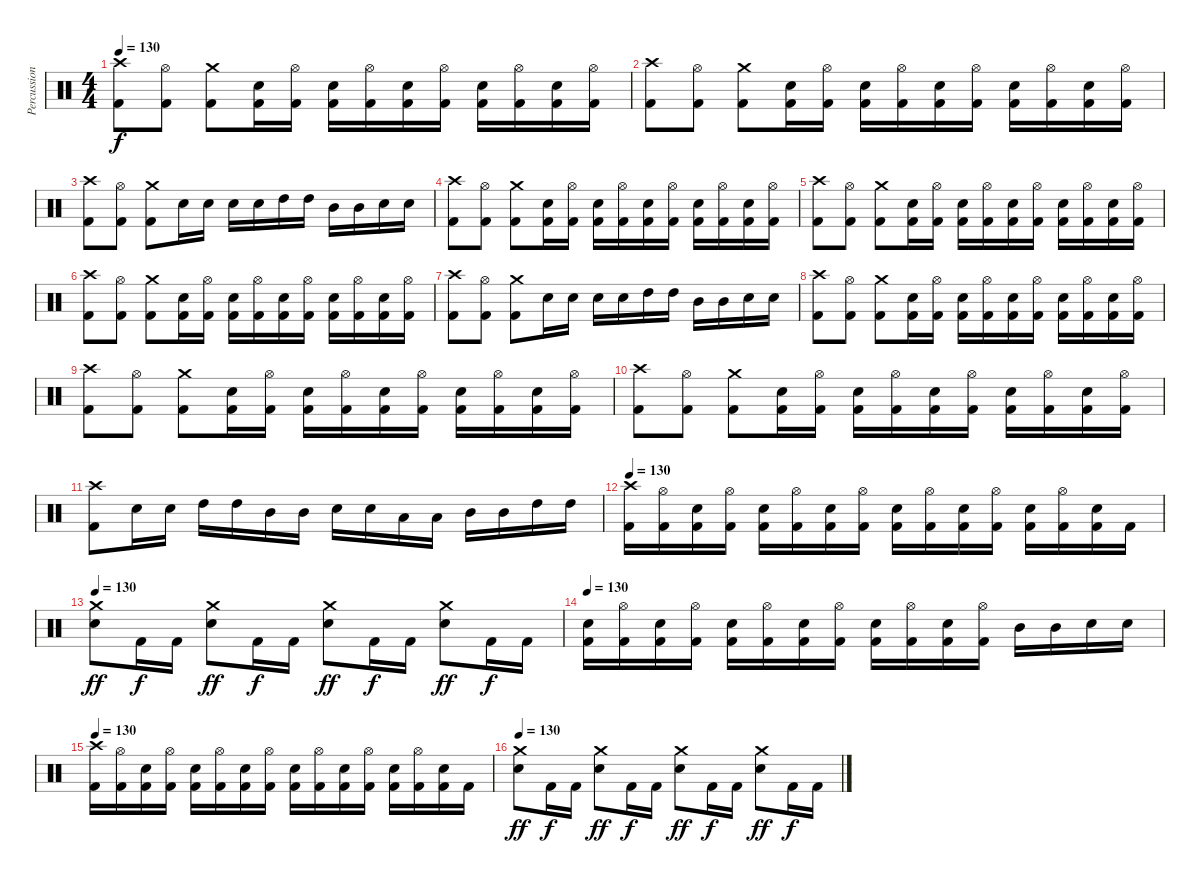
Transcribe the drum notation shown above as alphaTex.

\track ("Percussion" "Percussion") {instrument percussion}
\staff {score}
\articulation defaults
\ts (4 4)
\tempo 130
\clef neutral
\ks c
("Crash high (hit)" "Kick (hit) 2").8{dy f} ("Hi-Hat (open)" "Kick (hit) 2").8 ("Crash medium (hit)" "Kick (hit) 2").8 ("Electric Snare (hit)" "Kick (hit) 2").16 ("Hi-Hat (open)" "Kick (hit) 2").16 ("Electric Snare (hit)" "Kick (hit) 2").16 ("Hi-Hat (open)" "Kick (hit) 2").16 ("Electric Snare (hit)" "Kick (hit) 2").16 ("Hi-Hat (open)" "Kick (hit) 2").16 ("Electric Snare (hit)" "Kick (hit) 2").16 ("Hi-Hat (open)" "Kick (hit) 2").16 ("Electric Snare (hit)" "Kick (hit) 2").16 ("Hi-Hat (open)" "Kick (hit) 2").16 |
("Crash high (hit)" "Kick (hit) 2").8 ("Hi-Hat (open)" "Kick (hit) 2").8 ("Crash medium (hit)" "Kick (hit) 2").8 ("Electric Snare (hit)" "Kick (hit) 2").16 ("Hi-Hat (open)" "Kick (hit) 2").16 ("Electric Snare (hit)" "Kick (hit) 2").16 ("Hi-Hat (open)" "Kick (hit) 2").16 ("Electric Snare (hit)" "Kick (hit) 2").16 ("Hi-Hat (open)" "Kick (hit) 2").16 ("Electric Snare (hit)" "Kick (hit) 2").16 ("Hi-Hat (open)" "Kick (hit) 2").16 ("Electric Snare (hit)" "Kick (hit) 2").16 ("Hi-Hat (open)" "Kick (hit) 2").16 |
("Crash high (hit)" "Kick (hit) 2").8 ("Hi-Hat (open)" "Kick (hit) 2").8 ("Crash medium (hit)" "Kick (hit) 2").8 "Electric Snare (hit)".16 "Electric Snare (hit)".16 "Electric Snare (hit)".16 "Electric Snare (hit)".16 "High Tom (hit)".16 "High Tom (hit)".16 "Mid Tom (hit)".16 "Mid Tom (hit)".16 "Electric Snare (hit)".16 "Electric Snare (hit)".16 |
("Crash high (hit)" "Kick (hit) 2").8 ("Hi-Hat (open)" "Kick (hit) 2").8 ("Crash medium (hit)" "Kick (hit) 2").8 ("Electric Snare (hit)" "Kick (hit) 2").16 ("Hi-Hat (open)" "Kick (hit) 2").16 ("Electric Snare (hit)" "Kick (hit) 2").16 ("Hi-Hat (open)" "Kick (hit) 2").16 ("Electric Snare (hit)" "Kick (hit) 2").16 ("Hi-Hat (open)" "Kick (hit) 2").16 ("Electric Snare (hit)" "Kick (hit) 2").16 ("Hi-Hat (open)" "Kick (hit) 2").16 ("Electric Snare (hit)" "Kick (hit) 2").16 ("Hi-Hat (open)" "Kick (hit) 2").16 |
("Crash high (hit)" "Kick (hit) 2").8 ("Hi-Hat (open)" "Kick (hit) 2").8 ("Crash medium (hit)" "Kick (hit) 2").8 ("Electric Snare (hit)" "Kick (hit) 2").16 ("Hi-Hat (open)" "Kick (hit) 2").16 ("Electric Snare (hit)" "Kick (hit) 2").16 ("Hi-Hat (open)" "Kick (hit) 2").16 ("Electric Snare (hit)" "Kick (hit) 2").16 ("Hi-Hat (open)" "Kick (hit) 2").16 ("Electric Snare (hit)" "Kick (hit) 2").16 ("Hi-Hat (open)" "Kick (hit) 2").16 ("Electric Snare (hit)" "Kick (hit) 2").16 ("Hi-Hat (open)" "Kick (hit) 2").16 |
("Crash high (hit)" "Kick (hit) 2").8 ("Hi-Hat (open)" "Kick (hit) 2").8 ("Crash medium (hit)" "Kick (hit) 2").8 ("Electric Snare (hit)" "Kick (hit) 2").16 ("Hi-Hat (open)" "Kick (hit) 2").16 ("Electric Snare (hit)" "Kick (hit) 2").16 ("Hi-Hat (open)" "Kick (hit) 2").16 ("Electric Snare (hit)" "Kick (hit) 2").16 ("Hi-Hat (open)" "Kick (hit) 2").16 ("Electric Snare (hit)" "Kick (hit) 2").16 ("Hi-Hat (open)" "Kick (hit) 2").16 ("Electric Snare (hit)" "Kick (hit) 2").16 ("Hi-Hat (open)" "Kick (hit) 2").16 |
("Crash high (hit)" "Kick (hit) 2").8 ("Hi-Hat (open)" "Kick (hit) 2").8 ("Crash medium (hit)" "Kick (hit) 2").8 "Electric Snare (hit)".16 "Electric Snare (hit)".16 "Electric Snare (hit)".16 "Electric Snare (hit)".16 "High Tom (hit)".16 "High Tom (hit)".16 "Mid Tom (hit)".16 "Mid Tom (hit)".16 "Electric Snare (hit)".16 "Electric Snare (hit)".16 |
("Crash high (hit)" "Kick (hit) 2").8 ("Hi-Hat (open)" "Kick (hit) 2").8 ("Crash medium (hit)" "Kick (hit) 2").8 ("Electric Snare (hit)" "Kick (hit) 2").16 ("Hi-Hat (open)" "Kick (hit) 2").16 ("Electric Snare (hit)" "Kick (hit) 2").16 ("Hi-Hat (open)" "Kick (hit) 2").16 ("Electric Snare (hit)" "Kick (hit) 2").16 ("Hi-Hat (open)" "Kick (hit) 2").16 ("Electric Snare (hit)" "Kick (hit) 2").16 ("Hi-Hat (open)" "Kick (hit) 2").16 ("Electric Snare (hit)" "Kick (hit) 2").16 ("Hi-Hat (open)" "Kick (hit) 2").16 |
("Crash high (hit)" "Kick (hit) 2").8 ("Hi-Hat (open)" "Kick (hit) 2").8 ("Crash medium (hit)" "Kick (hit) 2").8 ("Electric Snare (hit)" "Kick (hit) 2").16 ("Hi-Hat (open)" "Kick (hit) 2").16 ("Electric Snare (hit)" "Kick (hit) 2").16 ("Hi-Hat (open)" "Kick (hit) 2").16 ("Electric Snare (hit)" "Kick (hit) 2").16 ("Hi-Hat (open)" "Kick (hit) 2").16 ("Electric Snare (hit)" "Kick (hit) 2").16 ("Hi-Hat (open)" "Kick (hit) 2").16 ("Electric Snare (hit)" "Kick (hit) 2").16 ("Hi-Hat (open)" "Kick (hit) 2").16 |
("Crash high (hit)" "Kick (hit) 2").8 ("Hi-Hat (open)" "Kick (hit) 2").8 ("Crash medium (hit)" "Kick (hit) 2").8 ("Electric Snare (hit)" "Kick (hit) 2").16 ("Hi-Hat (open)" "Kick (hit) 2").16 ("Electric Snare (hit)" "Kick (hit) 2").16 ("Hi-Hat (open)" "Kick (hit) 2").16 ("Electric Snare (hit)" "Kick (hit) 2").16 ("Hi-Hat (open)" "Kick (hit) 2").16 ("Electric Snare (hit)" "Kick (hit) 2").16 ("Hi-Hat (open)" "Kick (hit) 2").16 ("Electric Snare (hit)" "Kick (hit) 2").16 ("Hi-Hat (open)" "Kick (hit) 2").16 |
("Crash high (hit)" "Kick (hit) 2").8 "Electric Snare (hit)".16 "Electric Snare (hit)".16 "High Tom (hit)".16 "High Tom (hit)".16 "Mid Tom (hit)".16 "Mid Tom (hit)".16 "Electric Snare (hit)".16 "Electric Snare (hit)".16 "Low Tom (hit)".16 "Low Tom (hit)".16 "Mid Tom (hit)".16 "Mid Tom (hit)".16 "High Tom (hit)".16 "High Tom (hit)".16 |
\tempo 130
("Crash high (hit)" "Kick (hit) 2").16 ("Hi-Hat (open)" "Kick (hit) 2").16 ("Electric Snare (hit)" "Kick (hit) 2").16 ("Hi-Hat (open)" "Kick (hit) 2").16 ("Electric Snare (hit)" "Kick (hit) 2").16 ("Hi-Hat (open)" "Kick (hit) 2").16 ("Electric Snare (hit)" "Kick (hit) 2").16 ("Hi-Hat (open)" "Kick (hit) 2").16 ("Electric Snare (hit)" "Kick (hit) 2").16 ("Hi-Hat (open)" "Kick (hit) 2").16 ("Electric Snare (hit)" "Kick (hit) 2").16 ("Hi-Hat (open)" "Kick (hit) 2").16 ("Electric Snare (hit)" "Kick (hit) 2").16 ("Hi-Hat (open)" "Kick (hit) 2").16 ("Electric Snare (hit)" "Kick (hit) 2").16 "Kick (hit) 2".16 |
\tempo 130
("Crash medium (hit)" "Electric Snare (hit)").8{dy ff} "Kick (hit) 2".16{dy f} "Kick (hit) 2".16 ("Crash medium (hit)" "Electric Snare (hit)").8{dy ff} "Kick (hit) 2".16{dy f} "Kick (hit) 2".16 ("Crash medium (hit)" "Electric Snare (hit)").8{dy ff} "Kick (hit) 2".16{dy f} "Kick (hit) 2".16 ("Crash medium (hit)" "Electric Snare (hit)").8{dy ff} "Kick (hit) 2".16{dy f} "Kick (hit) 2".16 |
\tempo 130
("Electric Snare (hit)" "Kick (hit) 2").16 ("Hi-Hat (open)" "Kick (hit) 2").16 ("Electric Snare (hit)" "Kick (hit) 2").16 ("Hi-Hat (open)" "Kick (hit) 2").16 ("Electric Snare (hit)" "Kick (hit) 2").16 ("Hi-Hat (open)" "Kick (hit) 2").16 ("Electric Snare (hit)" "Kick (hit) 2").16 ("Hi-Hat (open)" "Kick (hit) 2").16 ("Electric Snare (hit)" "Kick (hit) 2").16 ("Hi-Hat (open)" "Kick (hit) 2").16 ("Electric Snare (hit)" "Kick (hit) 2").16 ("Hi-Hat (open)" "Kick (hit) 2").16 "Mid Tom (hit)".16 "Mid Tom (hit)".16 "Electric Snare (hit)".16 "Electric Snare (hit)".16 |
\tempo 130
("Crash high (hit)" "Kick (hit) 2").16 ("Hi-Hat (open)" "Kick (hit) 2").16 ("Electric Snare (hit)" "Kick (hit) 2").16 ("Hi-Hat (open)" "Kick (hit) 2").16 ("Electric Snare (hit)" "Kick (hit) 2").16 ("Hi-Hat (open)" "Kick (hit) 2").16 ("Electric Snare (hit)" "Kick (hit) 2").16 ("Hi-Hat (open)" "Kick (hit) 2").16 ("Electric Snare (hit)" "Kick (hit) 2").16 ("Hi-Hat (open)" "Kick (hit) 2").16 ("Electric Snare (hit)" "Kick (hit) 2").16 ("Hi-Hat (open)" "Kick (hit) 2").16 ("Electric Snare (hit)" "Kick (hit) 2").16 ("Hi-Hat (open)" "Kick (hit) 2").16 ("Electric Snare (hit)" "Kick (hit) 2").16 "Kick (hit) 2".16 |
\tempo 130
("Crash medium (hit)" "Electric Snare (hit)").8{dy ff} "Kick (hit) 2".16{dy f} "Kick (hit) 2".16 ("Crash medium (hit)" "Electric Snare (hit)").8{dy ff} "Kick (hit) 2".16{dy f} "Kick (hit) 2".16 ("Crash medium (hit)" "Electric Snare (hit)").8{dy ff} "Kick (hit) 2".16{dy f} "Kick (hit) 2".16 ("Crash medium (hit)" "Electric Snare (hit)").8{dy ff} "Kick (hit) 2".16{dy f} "Kick (hit) 2".16
